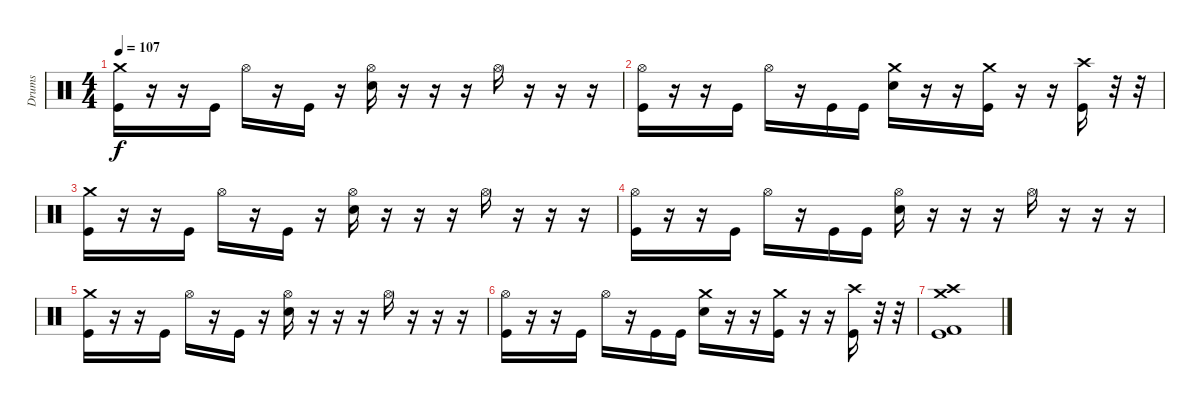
\track ("Drums" "Drums") {instrument percussion}
\staff {score}
\articulation defaults
\ts (4 4)
\tempo 107
\clef neutral
\ks c
("Crash medium (hit)" "Kick (hit)").16{dy f} r.16 r.16 "Kick (hit)".16 "Hi-Hat (open)".16 r.16 "Kick (hit)".16 r.16 ("Hi-Hat (open)" "Electric Snare (hit)").16 r.16 r.16 r.16 "Hi-Hat (open)".16 r.16 r.16 r.16 |
("Hi-Hat (open)" "Kick (hit)").16 r.16 r.16 "Kick (hit)".16 "Hi-Hat (open)".16 r.16 "Kick (hit)".16 "Kick (hit)".16 ("Crash medium (hit)" "Electric Snare (hit)").16 r.16 r.16 ("Crash medium (hit)" "Kick (hit)").16 r.16 r.16 ("Crash high (hit)" "Kick (hit)").16 r.32 r.32 |
("Crash medium (hit)" "Kick (hit)").16 r.16 r.16 "Kick (hit)".16 "Hi-Hat (open)".16 r.16 "Kick (hit)".16 r.16 ("Hi-Hat (open)" "Electric Snare (hit)").16 r.16 r.16 r.16 "Hi-Hat (open)".16 r.16 r.16 r.16 |
("Hi-Hat (open)" "Kick (hit)").16 r.16 r.16 "Kick (hit)".16 "Hi-Hat (open)".16 r.16 "Kick (hit)".16 "Kick (hit)".16 ("Hi-Hat (open)" "Electric Snare (hit)").16 r.16 r.16 r.16 "Hi-Hat (open)".16 r.16 r.16 r.16 |
("Crash medium (hit)" "Kick (hit)").16 r.16 r.16 "Kick (hit)".16 "Hi-Hat (open)".16 r.16 "Kick (hit)".16 r.16 ("Hi-Hat (open)" "Electric Snare (hit)").16 r.16 r.16 r.16 "Hi-Hat (open)".16 r.16 r.16 r.16 |
("Hi-Hat (open)" "Kick (hit)").16 r.16 r.16 "Kick (hit)".16 "Hi-Hat (open)".16 r.16 "Kick (hit)".16 "Kick (hit)".16 ("Crash medium (hit)" "Electric Snare (hit)").16 r.16 r.16 ("Crash medium (hit)" "Kick (hit)").16 r.16 r.16 ("Crash high (hit)" "Kick (hit)").16 r.32 r.32 |
("Crash high (hit)" "Crash medium (hit)" "Kick (hit)" "Kick (hit) 2").1
